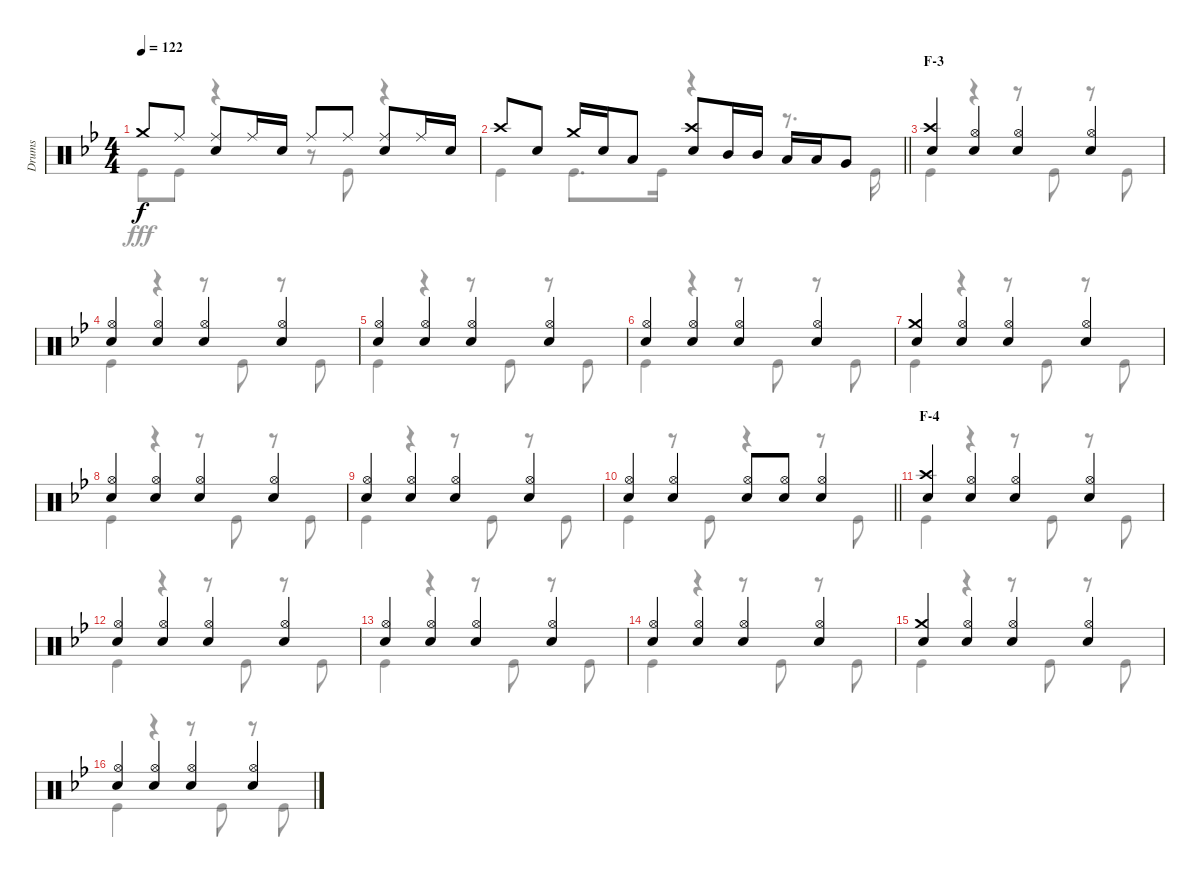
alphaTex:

\track ("Drums" "Drums") {instrument percussion}
\staff {score}
\articulation defaults
\voice
\ts (4 4)
\tempo 122
\clef neutral
\ks bb "Crash medium (hit)".8{dy f} "Ride (middle)".8
("Ride (middle)" "Snare (hit) 2").8 "Ride (middle)".16 "Snare (hit) 2".16 "Ride (middle)".8 "Ride (middle)".8 ("Ride (middle)" "Snare (hit) 2").8 "Ride (middle)".16 "Snare (hit) 2".16 |
\barLineRight lightlight "Crash high (hit)".8 "Snare (hit) 2".8 "Crash medium (hit)".16 "Snare (hit) 2".16 "Low Tom (hit)".8
("Crash high (hit)" "Snare (hit) 2").8 "Mid Tom (hit)".16 "Mid Tom (hit)".16 "Low Tom (hit)".16 "Low Tom (hit)".16 "Very Low Tom (hit)".8 |
\section ("" "F-3")
("Crash high (hit)" "Snare (hit) 2").4 ("Hi-Hat (open)" "Snare (hit) 2").4 ("Hi-Hat (open)" "Snare (hit) 2").4 ("Hi-Hat (open)" "Snare (hit) 2").4 |
("Hi-Hat (open)" "Snare (hit) 2").4 ("Hi-Hat (open)" "Snare (hit) 2").4 ("Hi-Hat (open)" "Snare (hit) 2").4 ("Hi-Hat (open)" "Snare (hit) 2").4 |
("Hi-Hat (open)" "Snare (hit) 2").4 ("Hi-Hat (open)" "Snare (hit) 2").4 ("Hi-Hat (open)" "Snare (hit) 2").4 ("Hi-Hat (open)" "Snare (hit) 2").4 |
("Hi-Hat (open)" "Snare (hit) 2").4 ("Hi-Hat (open)" "Snare (hit) 2").4 ("Hi-Hat (open)" "Snare (hit) 2").4 ("Hi-Hat (open)" "Snare (hit) 2").4 |
("Crash medium (hit)" "Snare (hit) 2").4 ("Hi-Hat (open)" "Snare (hit) 2").4 ("Hi-Hat (open)" "Snare (hit) 2").4 ("Hi-Hat (open)" "Snare (hit) 2").4 |
("Hi-Hat (open)" "Snare (hit) 2").4 ("Hi-Hat (open)" "Snare (hit) 2").4 ("Hi-Hat (open)" "Snare (hit) 2").4 ("Hi-Hat (open)" "Snare (hit) 2").4 |
("Hi-Hat (open)" "Snare (hit) 2").4 ("Hi-Hat (open)" "Snare (hit) 2").4 ("Hi-Hat (open)" "Snare (hit) 2").4 ("Hi-Hat (open)" "Snare (hit) 2").4 |
\barLineRight lightlight
("Hi-Hat (open)" "Snare (hit) 2").4 ("Hi-Hat (open)" "Snare (hit) 2").4 ("Hi-Hat (open)" "Snare (hit) 2").8 ("Hi-Hat (open)" "Snare (hit) 2").8 ("Hi-Hat (open)" "Snare (hit) 2").4 |
\section ("" "F-4")
("Crash high (hit)" "Snare (hit) 2").4 ("Hi-Hat (open)" "Snare (hit) 2").4 ("Hi-Hat (open)" "Snare (hit) 2").4 ("Hi-Hat (open)" "Snare (hit) 2").4 |
("Hi-Hat (open)" "Snare (hit) 2").4 ("Hi-Hat (open)" "Snare (hit) 2").4 ("Hi-Hat (open)" "Snare (hit) 2").4 ("Hi-Hat (open)" "Snare (hit) 2").4 |
("Hi-Hat (open)" "Snare (hit) 2").4 ("Hi-Hat (open)" "Snare (hit) 2").4 ("Hi-Hat (open)" "Snare (hit) 2").4 ("Hi-Hat (open)" "Snare (hit) 2").4 |
("Hi-Hat (open)" "Snare (hit) 2").4 ("Hi-Hat (open)" "Snare (hit) 2").4 ("Hi-Hat (open)" "Snare (hit) 2").4 ("Hi-Hat (open)" "Snare (hit) 2").4 |
("Crash medium (hit)" "Snare (hit) 2").4 ("Hi-Hat (open)" "Snare (hit) 2").4 ("Hi-Hat (open)" "Snare (hit) 2").4 ("Hi-Hat (open)" "Snare (hit) 2").4 |
("Hi-Hat (open)" "Snare (hit) 2").4 ("Hi-Hat (open)" "Snare (hit) 2").4 ("Hi-Hat (open)" "Snare (hit) 2").4 ("Hi-Hat (open)" "Snare (hit) 2").4
\voice
\clef neutral
\ottava regular
\simile none
\ks bb "Kick (hit)".8{dy fff} "Kick (hit)".8
r.4 r.8 "Kick (hit)".8 r.4 |
\barLineRight lightlight "Kick (hit)".4 "Kick (hit)".8{d} "Kick (hit)".16
r.4 r.8{d} "Kick (hit)".16 |
"Kick (hit)".4 r.4 r.8 "Kick (hit)".8 r.8 "Kick (hit)".8 |
"Kick (hit)".4 r.4 r.8 "Kick (hit)".8 r.8 "Kick (hit)".8 |
"Kick (hit)".4 r.4 r.8 "Kick (hit)".8 r.8 "Kick (hit)".8 |
"Kick (hit)".4 r.4 r.8 "Kick (hit)".8 r.8 "Kick (hit)".8 |
"Kick (hit)".4 r.4 r.8 "Kick (hit)".8 r.8 "Kick (hit)".8 |
"Kick (hit)".4 r.4 r.8 "Kick (hit)".8 r.8 "Kick (hit)".8 |
"Kick (hit)".4 r.4 r.8 "Kick (hit)".8 r.8 "Kick (hit)".8 |
\barLineRight lightlight "Kick (hit)".4
r.8 "Kick (hit)".8 r.4 r.8 "Kick (hit)".8 |
"Kick (hit)".4 r.4 r.8 "Kick (hit)".8 r.8 "Kick (hit)".8 |
"Kick (hit)".4 r.4 r.8 "Kick (hit)".8 r.8 "Kick (hit)".8 |
"Kick (hit)".4 r.4 r.8 "Kick (hit)".8 r.8 "Kick (hit)".8 |
"Kick (hit)".4 r.4 r.8 "Kick (hit)".8 r.8 "Kick (hit)".8 |
"Kick (hit)".4 r.4 r.8 "Kick (hit)".8 r.8 "Kick (hit)".8 |
"Kick (hit)".4 r.4 r.8 "Kick (hit)".8 r.8 "Kick (hit)".8
